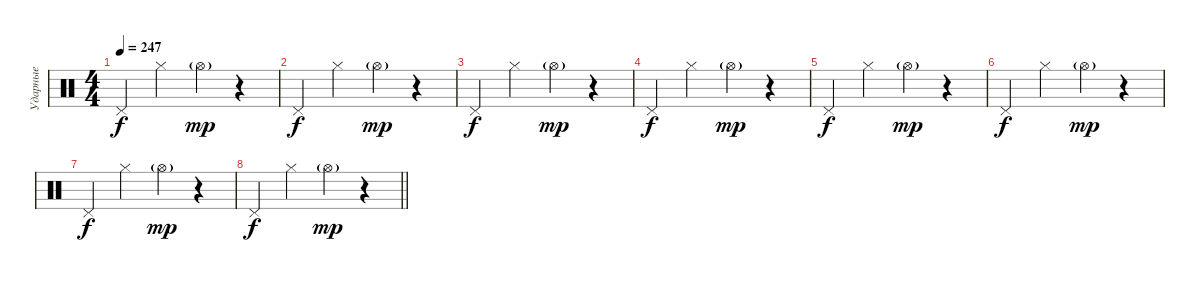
\track ("Ударные" "Ударные") {instrument percussion}
\staff {score}
\articulation defaults
\ts (4 4)
\tempo 247
\clef neutral
\ks c "Pedal Hi-Hat (hit)".4{dy f} "Hi-Hat (closed)".4 "Hi-Hat (open)"{g}.4{dy mp}
r.4 |
"Pedal Hi-Hat (hit)".4{dy f} "Hi-Hat (closed)".4 "Hi-Hat (open)"{g}.4{dy mp} r.4 |
"Pedal Hi-Hat (hit)".4{dy f} "Hi-Hat (closed)".4 "Hi-Hat (open)"{g}.4{dy mp} r.4 |
"Pedal Hi-Hat (hit)".4{dy f} "Hi-Hat (closed)".4 "Hi-Hat (open)"{g}.4{dy mp} r.4 |
"Pedal Hi-Hat (hit)".4{dy f} "Hi-Hat (closed)".4 "Hi-Hat (open)"{g}.4{dy mp} r.4 |
"Pedal Hi-Hat (hit)".4{dy f} "Hi-Hat (closed)".4 "Hi-Hat (open)"{g}.4{dy mp} r.4 |
"Pedal Hi-Hat (hit)".4{dy f} "Hi-Hat (closed)".4 "Hi-Hat (open)"{g}.4{dy mp} r.4 |
\barLineRight lightlight "Pedal Hi-Hat (hit)".4{dy f} "Hi-Hat (closed)".4 "Hi-Hat (open)"{g}.4{dy mp}
r.4
